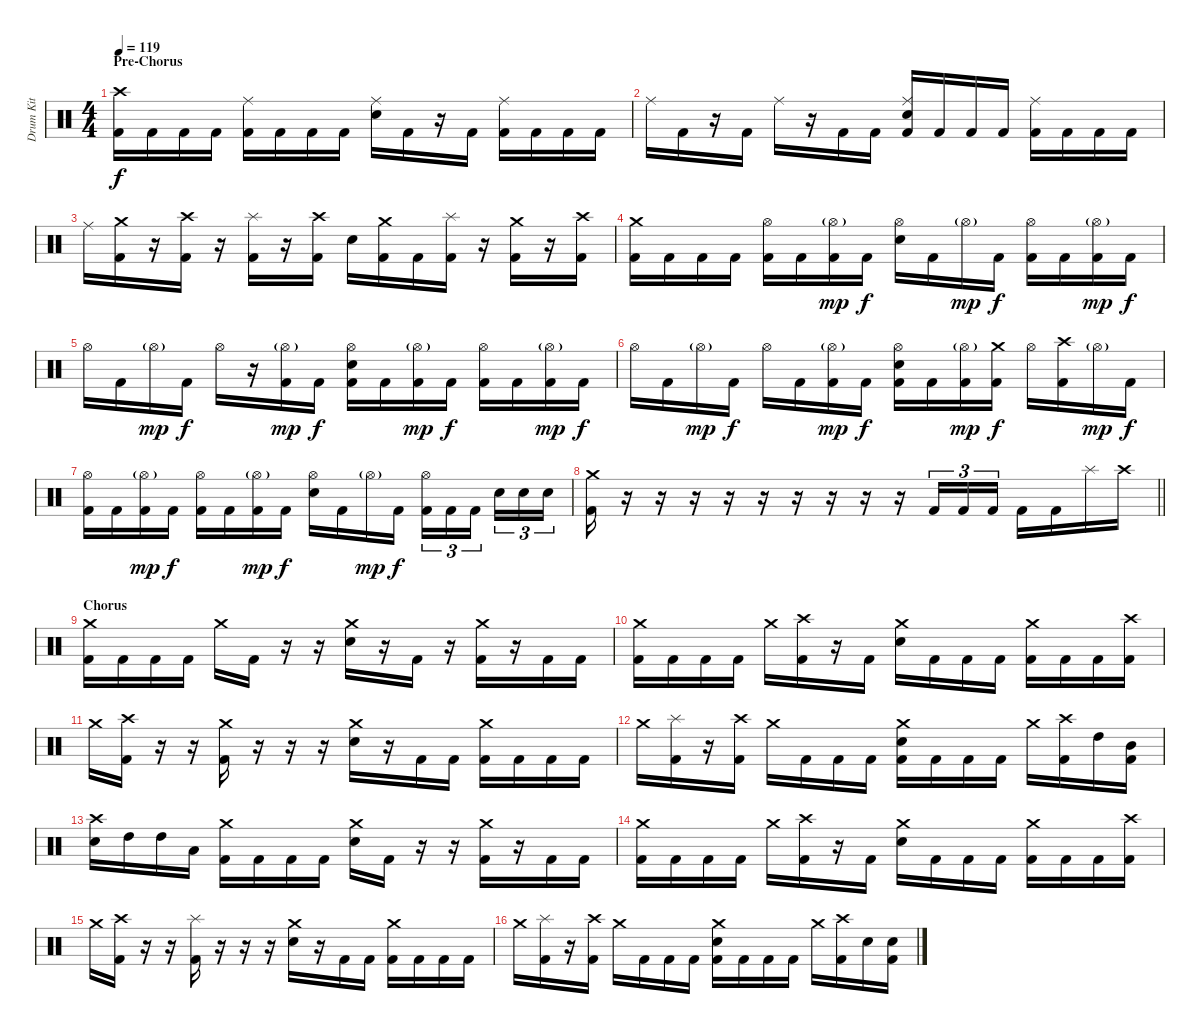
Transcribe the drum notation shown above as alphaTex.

\track ("Drum Kit" "Drum Kit") {instrument percussion}
\staff {score}
\articulation defaults
\ts (4 4)
\section ("" "Pre-Chorus")
\tempo 119
\clef neutral
\ks c
("Crash high (hit)" "Kick (hit) 2").16{dy f} "Kick (hit) 2".16 "Kick (hit) 2".16 "Kick (hit) 2".16 ("Ride (middle)" "Kick (hit) 2").16 "Kick (hit) 2".16 "Kick (hit) 2".16 "Kick (hit) 2".16 ("Ride (middle)" "Electric Snare (hit)").16 "Kick (hit) 2".16 r.16 "Kick (hit) 2".16 ("Ride (middle)" "Kick (hit) 2").16 "Kick (hit) 2".16 "Kick (hit) 2".16 "Kick (hit) 2".16 |
"Ride (middle)".16 "Kick (hit) 2".16 r.16 "Kick (hit) 2".16 "Ride (middle)".16 r.16 "Kick (hit) 2".16 "Kick (hit) 2".16 ("Ride (middle)" "Electric Snare (hit)" "Kick (hit) 2").16 "Kick (hit) 2".16 "Kick (hit) 2".16 "Kick (hit) 2".16 ("Ride (middle)" "Kick (hit) 2").16 "Kick (hit) 2".16 "Kick (hit) 2".16 "Kick (hit) 2".16 |
"Ride (middle)".16 ("Crash medium (hit)" "Kick (hit) 2").16 r.16 ("Crash high (hit)" "Kick (hit) 2").16 r.16 ("Splash (hit)" "Kick (hit) 2").16 r.16 ("Crash high (hit)" "Kick (hit) 2").16 "Electric Snare (hit)".16 ("Crash medium (hit)" "Kick (hit) 2").16 "Kick (hit) 2".16 ("Splash (hit)" "Kick (hit) 2").16 r.16 ("Crash medium (hit)" "Kick (hit) 2").16 r.16 ("Crash high (hit)" "Kick (hit) 2").16 |
("Crash medium (hit)" "Kick (hit) 2").16 "Kick (hit) 2".16 "Kick (hit) 2".16 "Kick (hit) 2".16 ("Hi-Hat (open)" "Kick (hit) 2").16 "Kick (hit) 2".16 ("Hi-Hat (open)"{g} "Kick (hit) 2").16{dy mp} "Kick (hit) 2".16{dy f} ("Hi-Hat (open)" "Electric Snare (hit)").16 "Kick (hit) 2".16 "Hi-Hat (open)"{g}.16{dy mp} "Kick (hit) 2".16{dy f} ("Hi-Hat (open)" "Kick (hit) 2").16 "Kick (hit) 2".16 ("Hi-Hat (open)"{g} "Kick (hit) 2").16{dy mp} "Kick (hit) 2".16{dy f} |
"Hi-Hat (open)".16 "Kick (hit) 2".16 "Hi-Hat (open)"{g}.16{dy mp} "Kick (hit) 2".16{dy f} "Hi-Hat (open)".16 r.16 ("Hi-Hat (open)"{g} "Kick (hit) 2").16{dy mp} "Kick (hit) 2".16{dy f} ("Hi-Hat (open)" "Electric Snare (hit)" "Kick (hit) 2").16 "Kick (hit) 2".16 ("Hi-Hat (open)"{g} "Kick (hit) 2").16{dy mp} "Kick (hit) 2".16{dy f} ("Hi-Hat (open)" "Kick (hit) 2").16 "Kick (hit) 2".16 ("Hi-Hat (open)"{g} "Kick (hit) 2").16{dy mp} "Kick (hit) 2".16{dy f} |
"Hi-Hat (open)".16 "Kick (hit) 2".16 "Hi-Hat (open)"{g}.16{dy mp} "Kick (hit) 2".16{dy f} "Hi-Hat (open)".16 "Kick (hit) 2".16 ("Hi-Hat (open)"{g} "Kick (hit) 2").16{dy mp} "Kick (hit) 2".16{dy f} ("Hi-Hat (open)" "Electric Snare (hit)" "Kick (hit) 2").16 "Kick (hit) 2".16 ("Hi-Hat (open)"{g} "Kick (hit) 2").16{dy mp} ("Crash medium (hit)" "Kick (hit) 2").16{dy f} "Hi-Hat (open)".16 ("Crash high (hit)" "Kick (hit) 2").16 "Hi-Hat (open)"{g}.16{dy mp} "Kick (hit) 2".16{dy f} |
("Hi-Hat (open)" "Kick (hit) 2").16 "Kick (hit) 2".16 ("Hi-Hat (open)"{g} "Kick (hit) 2").16{dy mp} "Kick (hit) 2".16{dy f} ("Hi-Hat (open)" "Kick (hit) 2").16 "Kick (hit) 2".16 ("Hi-Hat (open)"{g} "Kick (hit) 2").16{dy mp} "Kick (hit) 2".16{dy f} ("Hi-Hat (open)" "Electric Snare (hit)").16 "Kick (hit) 2".16 "Hi-Hat (open)"{g}.16{dy mp} "Kick (hit) 2".16{dy f} ("Hi-Hat (open)" "Kick (hit) 2").16{tu (3 2)} "Kick (hit) 2".16{tu (3 2)} "Kick (hit) 2".16{tu (3 2) beam splitsecondary} "Electric Snare (hit)".16{tu (3 2)} "Electric Snare (hit)".16{tu (3 2)} "Electric Snare (hit)".16{tu (3 2)} |
\barLineRight lightlight
("Crash medium (hit)" "Kick (hit) 2").16 r.16 r.16 r.16 r.16 r.16 r.16 r.16 r.16 r.16 "Kick (hit) 2".16{tu (3 2)} "Kick (hit) 2".16{tu (3 2)} "Kick (hit) 2".16{tu (3 2)} "Kick (hit) 2".16 "Kick (hit) 2".16 "Splash (hit)".16 "Crash high (hit)".16 |
\section ("" "Chorus")
("Crash medium (hit)" "Kick (hit) 2").16 "Kick (hit) 2".16 "Kick (hit) 2".16 "Kick (hit) 2".16 "Crash medium (hit)".16 "Kick (hit) 2".16 r.16 r.16 ("Crash medium (hit)" "Electric Snare (hit)").16 r.16 "Kick (hit) 2".16 r.16 ("Crash medium (hit)" "Kick (hit) 2").16 r.16 "Kick (hit) 2".16 "Kick (hit) 2".16 |
("Crash medium (hit)" "Kick (hit) 2").16 "Kick (hit) 2".16 "Kick (hit) 2".16 "Kick (hit) 2".16 "Crash medium (hit)".16 ("Crash high (hit)" "Kick (hit) 2").16 r.16 "Kick (hit) 2".16 ("Crash medium (hit)" "Electric Snare (hit)").16 "Kick (hit) 2".16 "Kick (hit) 2".16 "Kick (hit) 2".16 ("Crash medium (hit)" "Kick (hit) 2").16 "Kick (hit) 2".16 "Kick (hit) 2".16 ("Crash high (hit)" "Kick (hit) 2").16 |
"Crash medium (hit)".16 ("Crash high (hit)" "Kick (hit) 2").16 r.16 r.16 ("Crash medium (hit)" "Kick (hit) 2").16 r.16 r.16 r.16 ("Crash medium (hit)" "Electric Snare (hit)").16 r.16 "Kick (hit) 2".16 "Kick (hit) 2".16 ("Crash medium (hit)" "Kick (hit) 2").16 "Kick (hit) 2".16 "Kick (hit) 2".16 "Kick (hit) 2".16 |
"Crash medium (hit)".16 ("Splash (hit)" "Kick (hit) 2").16 r.16 ("Crash high (hit)" "Kick (hit) 2").16 "Crash medium (hit)".16 "Kick (hit) 2".16 "Kick (hit) 2".16 "Kick (hit) 2".16 ("Crash medium (hit)" "Electric Snare (hit)" "Kick (hit) 2").16 "Kick (hit) 2".16 "Kick (hit) 2".16 "Kick (hit) 2".16 "Crash medium (hit)".16 ("Crash high (hit)" "Kick (hit) 2").16 "High Tom (hit)".16 ("Mid Tom (hit)" "Kick (hit) 2").16 |
("Crash high (hit)" "Electric Snare (hit)").16 "High Tom (hit)".16 "High Tom (hit)".16 "Low Tom (hit)".16 ("Crash medium (hit)" "Kick (hit) 2").16 "Kick (hit) 2".16 "Kick (hit) 2".16 "Kick (hit) 2".16 ("Crash medium (hit)" "Electric Snare (hit)").16 "Kick (hit) 2".16 r.16 r.16 ("Crash medium (hit)" "Kick (hit) 2").16 r.16 "Kick (hit) 2".16 "Kick (hit) 2".16 |
("Crash medium (hit)" "Kick (hit) 2").16 "Kick (hit) 2".16 "Kick (hit) 2".16 "Kick (hit) 2".16 "Crash medium (hit)".16 ("Crash high (hit)" "Kick (hit) 2").16 r.16 "Kick (hit) 2".16 ("Crash medium (hit)" "Electric Snare (hit)").16 "Kick (hit) 2".16 "Kick (hit) 2".16 "Kick (hit) 2".16 ("Crash medium (hit)" "Kick (hit) 2").16 "Kick (hit) 2".16 "Kick (hit) 2".16 ("Crash high (hit)" "Kick (hit) 2").16 |
"Crash medium (hit)".16 ("Crash high (hit)" "Kick (hit) 2").16 r.16 r.16 ("Splash (hit)" "Kick (hit) 2").16 r.16 r.16 r.16 ("Crash medium (hit)" "Electric Snare (hit)").16 r.16 "Kick (hit) 2".16 "Kick (hit) 2".16 ("Crash medium (hit)" "Kick (hit) 2").16 "Kick (hit) 2".16 "Kick (hit) 2".16 "Kick (hit) 2".16 |
"Crash medium (hit)".16 ("Splash (hit)" "Kick (hit) 2").16 r.16 ("Crash high (hit)" "Kick (hit) 2").16 "Crash medium (hit)".16 "Kick (hit) 2".16 "Kick (hit) 2".16 "Kick (hit) 2".16 ("Crash medium (hit)" "Electric Snare (hit)" "Kick (hit) 2").16 "Kick (hit) 2".16 "Kick (hit) 2".16 "Kick (hit) 2".16 "Crash medium (hit)".16 ("Crash high (hit)" "Kick (hit) 2").16 "Electric Snare (hit)".16 ("Electric Snare (hit)" "Kick (hit) 2").16
